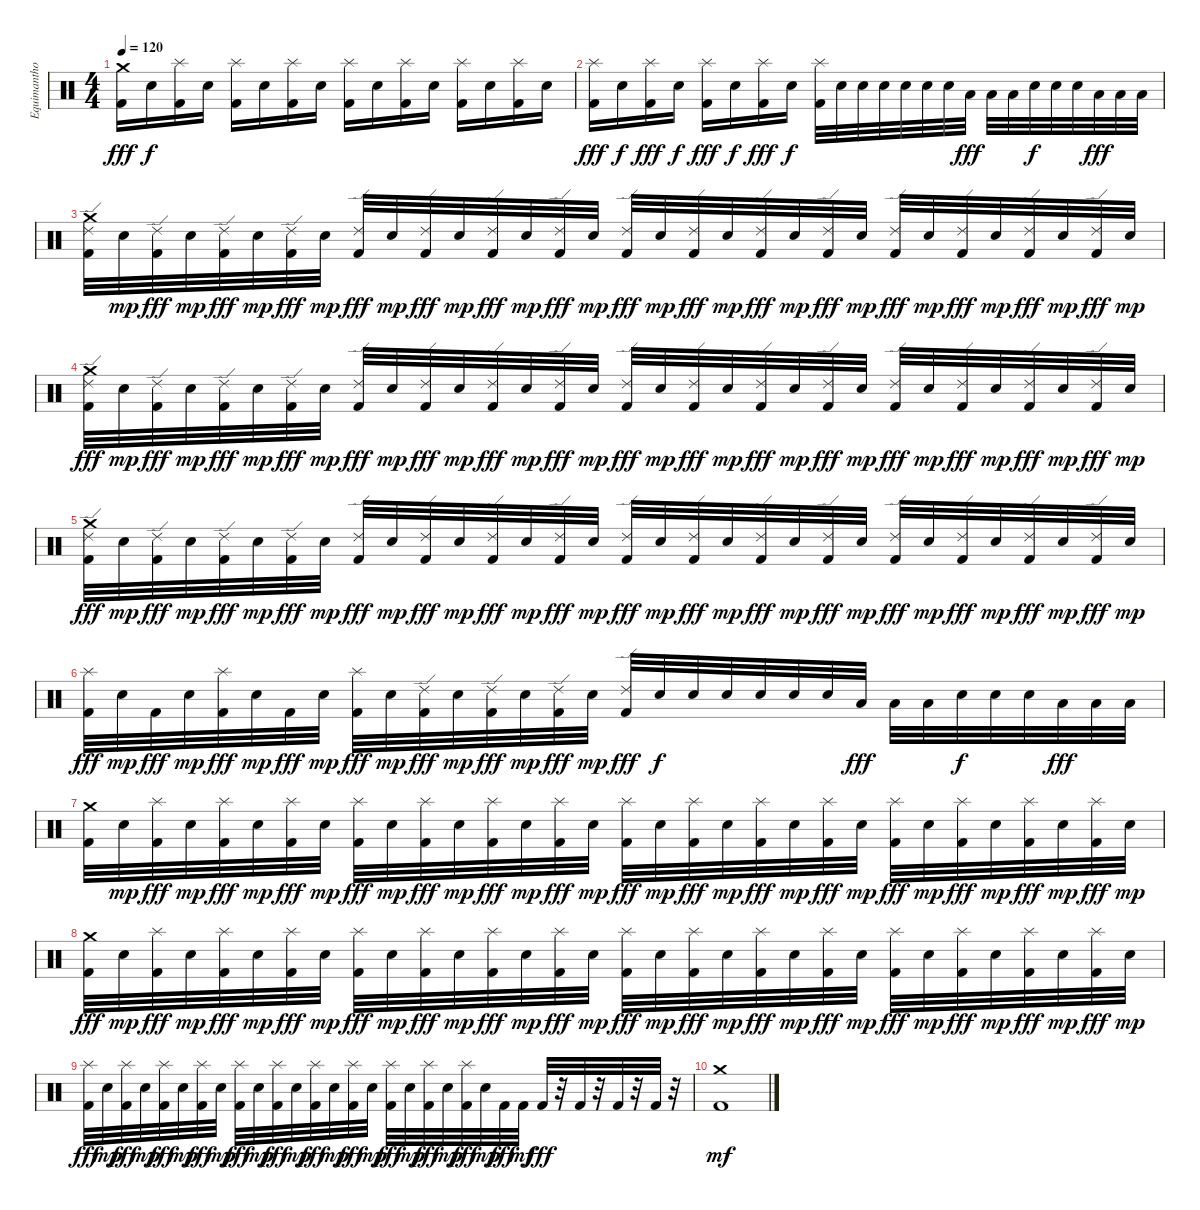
\track ("Equimanthorn" "Equimantho") {instrument percussion}
\staff {score}
\articulation defaults
\ts (4 4)
\tempo 120
\clef neutral
\ks c
("Crash medium (hit)" "Kick (hit) 2").16{dy fff} "Snare (hit) 2".16{dy f} ("Splash (hit)" "Kick (hit) 2").16 "Snare (hit) 2".16 ("Splash (hit)" "Kick (hit) 2").16 "Snare (hit) 2".16 ("Splash (hit)" "Kick (hit) 2").16 "Snare (hit) 2".16 ("Splash (hit)" "Kick (hit) 2").16 "Snare (hit) 2".16 ("Splash (hit)" "Kick (hit) 2").16 "Snare (hit) 2".16 ("Splash (hit)" "Kick (hit) 2").16 "Snare (hit) 2".16 ("Splash (hit)" "Kick (hit) 2").16 "Snare (hit) 2".16 |
("Splash (hit)" "Kick (hit) 2").16{dy fff} "Snare (hit) 2".16{dy f} ("Splash (hit)" "Kick (hit) 2").16{dy fff} "Snare (hit) 2".16{dy f} ("Splash (hit)" "Kick (hit) 2").16{dy fff} "Snare (hit) 2".16{dy f} ("Splash (hit)" "Kick (hit) 2").16{dy fff} "Snare (hit) 2".16{dy f} ("Splash (hit)" "Kick (hit) 2").32 "Snare (hit) 2".32 "Snare (hit) 2".32 "Snare (hit) 2".32 "Snare (hit) 2".32 "Snare (hit) 2".32 "Snare (hit) 2".32 "Low Tom (hit)".32{dy fff} "Low Tom (hit)".32 "Low Tom (hit)".32 "Snare (hit) 2".32{dy f} "Snare (hit) 2".32 "Snare (hit) 2".32 "Low Tom (hit)".32{dy fff} "Low Tom (hit)".32 "Low Tom (hit)".32 |
("Crash medium (hit)" "Ride (edge) 2" "Kick (hit) 2").32 "Snare (hit) 2".32{dy mp} ("Ride (edge) 2" "Kick (hit) 2").32{dy fff} "Snare (hit) 2".32{dy mp} ("Ride (edge) 2" "Kick (hit) 2").32{dy fff} "Snare (hit) 2".32{dy mp} ("Ride (edge) 2" "Kick (hit) 2").32{dy fff} "Snare (hit) 2".32{dy mp} ("Ride (edge) 2" "Kick (hit) 2").32{dy fff} "Snare (hit) 2".32{dy mp} ("Ride (edge) 2" "Kick (hit) 2").32{dy fff} "Snare (hit) 2".32{dy mp} ("Ride (edge) 2" "Kick (hit) 2").32{dy fff} "Snare (hit) 2".32{dy mp} ("Ride (edge) 2" "Kick (hit) 2").32{dy fff} "Snare (hit) 2".32{dy mp} ("Ride (edge) 2" "Kick (hit) 2").32{dy fff} "Snare (hit) 2".32{dy mp} ("Ride (edge) 2" "Kick (hit) 2").32{dy fff} "Snare (hit) 2".32{dy mp} ("Ride (edge) 2" "Kick (hit) 2").32{dy fff} "Snare (hit) 2".32{dy mp} ("Ride (edge) 2" "Kick (hit) 2").32{dy fff} "Snare (hit) 2".32{dy mp} ("Ride (edge) 2" "Kick (hit) 2").32{dy fff} "Snare (hit) 2".32{dy mp} ("Ride (edge) 2" "Kick (hit) 2").32{dy fff} "Snare (hit) 2".32{dy mp} ("Ride (edge) 2" "Kick (hit) 2").32{dy fff} "Snare (hit) 2".32{dy mp} ("Ride (edge) 2" "Kick (hit) 2").32{dy fff} "Snare (hit) 2".32{dy mp} |
("Crash medium (hit)" "Ride (edge) 2" "Kick (hit) 2").32{dy fff} "Snare (hit) 2".32{dy mp} ("Ride (edge) 2" "Kick (hit) 2").32{dy fff} "Snare (hit) 2".32{dy mp} ("Ride (edge) 2" "Kick (hit) 2").32{dy fff} "Snare (hit) 2".32{dy mp} ("Ride (edge) 2" "Kick (hit) 2").32{dy fff} "Snare (hit) 2".32{dy mp} ("Ride (edge) 2" "Kick (hit) 2").32{dy fff} "Snare (hit) 2".32{dy mp} ("Ride (edge) 2" "Kick (hit) 2").32{dy fff} "Snare (hit) 2".32{dy mp} ("Ride (edge) 2" "Kick (hit) 2").32{dy fff} "Snare (hit) 2".32{dy mp} ("Ride (edge) 2" "Kick (hit) 2").32{dy fff} "Snare (hit) 2".32{dy mp} ("Ride (edge) 2" "Kick (hit) 2").32{dy fff} "Snare (hit) 2".32{dy mp} ("Ride (edge) 2" "Kick (hit) 2").32{dy fff} "Snare (hit) 2".32{dy mp} ("Ride (edge) 2" "Kick (hit) 2").32{dy fff} "Snare (hit) 2".32{dy mp} ("Ride (edge) 2" "Kick (hit) 2").32{dy fff} "Snare (hit) 2".32{dy mp} ("Ride (edge) 2" "Kick (hit) 2").32{dy fff} "Snare (hit) 2".32{dy mp} ("Ride (edge) 2" "Kick (hit) 2").32{dy fff} "Snare (hit) 2".32{dy mp} ("Ride (edge) 2" "Kick (hit) 2").32{dy fff} "Snare (hit) 2".32{dy mp} ("Ride (edge) 2" "Kick (hit) 2").32{dy fff} "Snare (hit) 2".32{dy mp} |
("Crash medium (hit)" "Ride (edge) 2" "Kick (hit) 2").32{dy fff} "Snare (hit) 2".32{dy mp} ("Ride (edge) 2" "Kick (hit) 2").32{dy fff} "Snare (hit) 2".32{dy mp} ("Ride (edge) 2" "Kick (hit) 2").32{dy fff} "Snare (hit) 2".32{dy mp} ("Ride (edge) 2" "Kick (hit) 2").32{dy fff} "Snare (hit) 2".32{dy mp} ("Ride (edge) 2" "Kick (hit) 2").32{dy fff} "Snare (hit) 2".32{dy mp} ("Ride (edge) 2" "Kick (hit) 2").32{dy fff} "Snare (hit) 2".32{dy mp} ("Ride (edge) 2" "Kick (hit) 2").32{dy fff} "Snare (hit) 2".32{dy mp} ("Ride (edge) 2" "Kick (hit) 2").32{dy fff} "Snare (hit) 2".32{dy mp} ("Ride (edge) 2" "Kick (hit) 2").32{dy fff} "Snare (hit) 2".32{dy mp} ("Ride (edge) 2" "Kick (hit) 2").32{dy fff} "Snare (hit) 2".32{dy mp} ("Ride (edge) 2" "Kick (hit) 2").32{dy fff} "Snare (hit) 2".32{dy mp} ("Ride (edge) 2" "Kick (hit) 2").32{dy fff} "Snare (hit) 2".32{dy mp} ("Ride (edge) 2" "Kick (hit) 2").32{dy fff} "Snare (hit) 2".32{dy mp} ("Ride (edge) 2" "Kick (hit) 2").32{dy fff} "Snare (hit) 2".32{dy mp} ("Ride (edge) 2" "Kick (hit) 2").32{dy fff} "Snare (hit) 2".32{dy mp} ("Ride (edge) 2" "Kick (hit) 2").32{dy fff} "Snare (hit) 2".32{dy mp} |
("Splash (hit)" "Kick (hit) 2").32{dy fff} "Snare (hit) 2".32{dy mp} "Kick (hit) 2".32{dy fff} "Snare (hit) 2".32{dy mp} ("Splash (hit)" "Kick (hit) 2").32{dy fff} "Snare (hit) 2".32{dy mp} "Kick (hit) 2".32{dy fff} "Snare (hit) 2".32{dy mp} ("Splash (hit)" "Kick (hit) 2").32{dy fff} "Snare (hit) 2".32{dy mp} ("Ride (edge) 2" "Kick (hit) 2").32{dy fff} "Snare (hit) 2".32{dy mp} ("Ride (edge) 2" "Kick (hit) 2").32{dy fff} "Snare (hit) 2".32{dy mp} ("Ride (edge) 2" "Kick (hit) 2").32{dy fff} "Snare (hit) 2".32{dy mp} ("Ride (edge) 2" "Kick (hit) 2").32{dy fff} "Snare (hit) 2".32{dy f} "Snare (hit) 2".32 "Snare (hit) 2".32 "Snare (hit) 2".32 "Snare (hit) 2".32 "Snare (hit) 2".32 "Low Tom (hit)".32{dy fff} "Low Tom (hit)".32 "Low Tom (hit)".32 "Snare (hit) 2".32{dy f} "Snare (hit) 2".32 "Snare (hit) 2".32 "Low Tom (hit)".32{dy fff} "Low Tom (hit)".32 "Low Tom (hit)".32 |
("Crash medium (hit)" "Kick (hit) 2").32 "Snare (hit) 2".32{dy mp} ("Splash (hit)" "Kick (hit) 2").32{dy fff} "Snare (hit) 2".32{dy mp} ("Splash (hit)" "Kick (hit) 2").32{dy fff} "Snare (hit) 2".32{dy mp} ("Splash (hit)" "Kick (hit) 2").32{dy fff} "Snare (hit) 2".32{dy mp} ("Splash (hit)" "Kick (hit) 2").32{dy fff} "Snare (hit) 2".32{dy mp} ("Splash (hit)" "Kick (hit) 2").32{dy fff} "Snare (hit) 2".32{dy mp} ("Splash (hit)" "Kick (hit) 2").32{dy fff} "Snare (hit) 2".32{dy mp} ("Splash (hit)" "Kick (hit) 2").32{dy fff} "Snare (hit) 2".32{dy mp} ("Splash (hit)" "Kick (hit) 2").32{dy fff} "Snare (hit) 2".32{dy mp} ("Splash (hit)" "Kick (hit) 2").32{dy fff} "Snare (hit) 2".32{dy mp} ("Splash (hit)" "Kick (hit) 2").32{dy fff} "Snare (hit) 2".32{dy mp} ("Splash (hit)" "Kick (hit) 2").32{dy fff} "Snare (hit) 2".32{dy mp} ("Splash (hit)" "Kick (hit) 2").32{dy fff} "Snare (hit) 2".32{dy mp} ("Splash (hit)" "Kick (hit) 2").32{dy fff} "Snare (hit) 2".32{dy mp} ("Splash (hit)" "Kick (hit) 2").32{dy fff} "Snare (hit) 2".32{dy mp} ("Splash (hit)" "Kick (hit) 2").32{dy fff} "Snare (hit) 2".32{dy mp} |
("Crash medium (hit)" "Kick (hit) 2").32{dy fff} "Snare (hit) 2".32{dy mp} ("Splash (hit)" "Kick (hit) 2").32{dy fff} "Snare (hit) 2".32{dy mp} ("Splash (hit)" "Kick (hit) 2").32{dy fff} "Snare (hit) 2".32{dy mp} ("Splash (hit)" "Kick (hit) 2").32{dy fff} "Snare (hit) 2".32{dy mp} ("Splash (hit)" "Kick (hit) 2").32{dy fff} "Snare (hit) 2".32{dy mp} ("Splash (hit)" "Kick (hit) 2").32{dy fff} "Snare (hit) 2".32{dy mp} ("Splash (hit)" "Kick (hit) 2").32{dy fff} "Snare (hit) 2".32{dy mp} ("Splash (hit)" "Kick (hit) 2").32{dy fff} "Snare (hit) 2".32{dy mp} ("Splash (hit)" "Kick (hit) 2").32{dy fff} "Snare (hit) 2".32{dy mp} ("Splash (hit)" "Kick (hit) 2").32{dy fff} "Snare (hit) 2".32{dy mp} ("Splash (hit)" "Kick (hit) 2").32{dy fff} "Snare (hit) 2".32{dy mp} ("Splash (hit)" "Kick (hit) 2").32{dy fff} "Snare (hit) 2".32{dy mp} ("Splash (hit)" "Kick (hit) 2").32{dy fff} "Snare (hit) 2".32{dy mp} ("Splash (hit)" "Kick (hit) 2").32{dy fff} "Snare (hit) 2".32{dy mp} ("Splash (hit)" "Kick (hit) 2").32{dy fff} "Snare (hit) 2".32{dy mp} ("Splash (hit)" "Kick (hit) 2").32{dy fff} "Snare (hit) 2".32{dy mp} |
("Splash (hit)" "Kick (hit) 2").32{dy fff} "Snare (hit) 2".32{dy mp} ("Splash (hit)" "Kick (hit) 2").32{dy fff} "Snare (hit) 2".32{dy mp} ("Splash (hit)" "Kick (hit) 2").32{dy fff} "Snare (hit) 2".32{dy mp} ("Splash (hit)" "Kick (hit) 2").32{dy fff} "Snare (hit) 2".32{dy mp} ("Splash (hit)" "Kick (hit) 2").32{dy fff} "Snare (hit) 2".32{dy mp} ("Splash (hit)" "Kick (hit) 2").32{dy fff} "Snare (hit) 2".32{dy mp} ("Splash (hit)" "Kick (hit) 2").32{dy fff} "Snare (hit) 2".32{dy mp} ("Splash (hit)" "Kick (hit) 2").32{dy fff} "Snare (hit) 2".32{dy mp} ("Splash (hit)" "Kick (hit) 2").32{dy fff} "Snare (hit) 2".32{dy mp} ("Splash (hit)" "Kick (hit) 2").32{dy fff} "Snare (hit) 2".32{dy mp} ("Splash (hit)" "Kick (hit) 2").32{dy fff} "Snare (hit) 2".32{dy mp} "Kick (hit) 2".32{dy fff} "Kick (hit) 2".32{dy mf} "Kick (hit) 2".32{dy fff} r.32 "Kick (hit) 2".32 r.32 "Kick (hit) 2".32 r.32 "Kick (hit) 2".32 r.32 |
("Crash medium (hit)" "Kick (hit) 2").1{dy mf}
